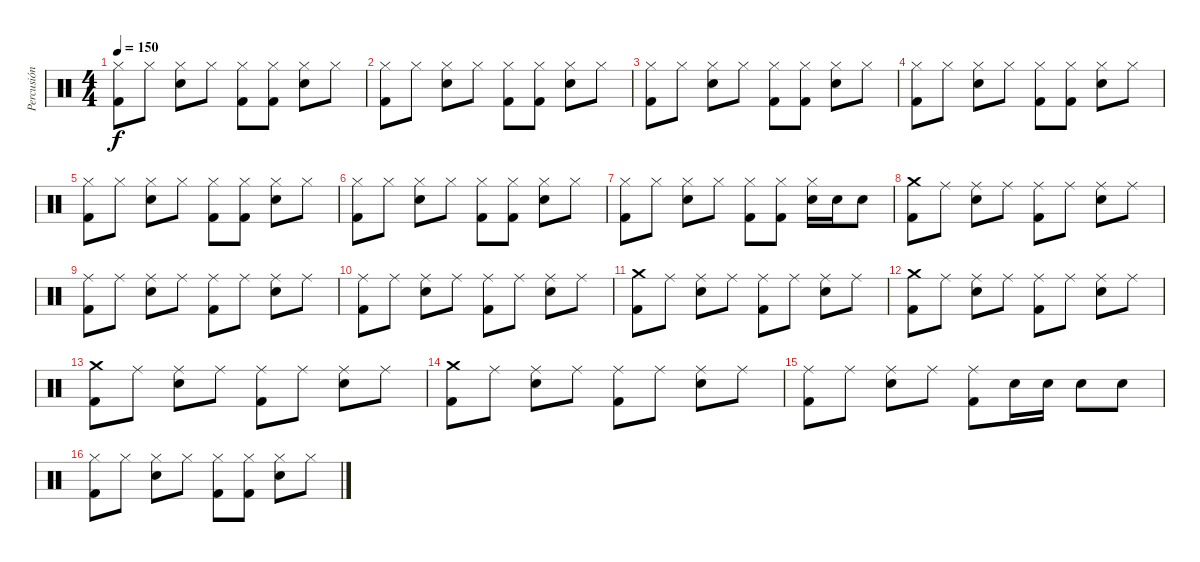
\track ("Percusión" "Percusión") {instrument percussion}
\staff {score}
\articulation defaults
\ts (4 4)
\tempo 150
\clef neutral
\ks c
("Hi-Hat (closed)" "Kick (hit) 2").8{dy f} "Hi-Hat (closed)".8 ("Hi-Hat (closed)" "Snare (hit) 2").8 "Hi-Hat (closed)".8 ("Hi-Hat (closed)" "Kick (hit) 2").8 ("Hi-Hat (closed)" "Kick (hit) 2").8 ("Hi-Hat (closed)" "Snare (hit) 2").8 "Hi-Hat (closed)".8 |
("Hi-Hat (closed)" "Kick (hit) 2").8 "Hi-Hat (closed)".8 ("Hi-Hat (closed)" "Snare (hit) 2").8 "Hi-Hat (closed)".8 ("Hi-Hat (closed)" "Kick (hit) 2").8 ("Hi-Hat (closed)" "Kick (hit) 2").8 ("Hi-Hat (closed)" "Snare (hit) 2").8 "Hi-Hat (closed)".8 |
("Hi-Hat (closed)" "Kick (hit) 2").8 "Hi-Hat (closed)".8 ("Hi-Hat (closed)" "Snare (hit) 2").8 "Hi-Hat (closed)".8 ("Hi-Hat (closed)" "Kick (hit) 2").8 ("Hi-Hat (closed)" "Kick (hit) 2").8 ("Hi-Hat (closed)" "Snare (hit) 2").8 "Hi-Hat (closed)".8 |
("Hi-Hat (closed)" "Kick (hit) 2").8 "Hi-Hat (closed)".8 ("Hi-Hat (closed)" "Snare (hit) 2").8 "Hi-Hat (closed)".8 ("Hi-Hat (closed)" "Kick (hit) 2").8 ("Hi-Hat (closed)" "Kick (hit) 2").8 ("Hi-Hat (closed)" "Snare (hit) 2").8 "Hi-Hat (closed)".8 |
("Hi-Hat (closed)" "Kick (hit) 2").8 "Hi-Hat (closed)".8 ("Hi-Hat (closed)" "Snare (hit) 2").8 "Hi-Hat (closed)".8 ("Hi-Hat (closed)" "Kick (hit) 2").8 ("Hi-Hat (closed)" "Kick (hit) 2").8 ("Hi-Hat (closed)" "Snare (hit) 2").8 "Hi-Hat (closed)".8 |
("Hi-Hat (closed)" "Kick (hit) 2").8 "Hi-Hat (closed)".8 ("Hi-Hat (closed)" "Snare (hit) 2").8 "Hi-Hat (closed)".8 ("Hi-Hat (closed)" "Kick (hit) 2").8 ("Hi-Hat (closed)" "Kick (hit) 2").8 ("Hi-Hat (closed)" "Snare (hit) 2").8 "Hi-Hat (closed)".8 |
("Hi-Hat (closed)" "Kick (hit) 2").8 "Hi-Hat (closed)".8 ("Hi-Hat (closed)" "Snare (hit) 2").8 "Hi-Hat (closed)".8 ("Hi-Hat (closed)" "Kick (hit) 2").8 ("Hi-Hat (closed)" "Kick (hit) 2").8 ("Hi-Hat (closed)" "Snare (hit) 2").16 "Snare (hit) 2".16 "Snare (hit) 2".8 |
("Crash medium (hit)" "Kick (hit) 2").8 "Ride (middle)".8 ("Ride (middle)" "Snare (hit) 2").8 "Ride (middle)".8 ("Ride (middle)" "Kick (hit) 2").8 "Ride (middle)".8 ("Ride (middle)" "Snare (hit) 2").8 "Ride (middle)".8 |
("Ride (middle)" "Kick (hit) 2").8 "Ride (middle)".8 ("Ride (middle)" "Snare (hit) 2").8 "Ride (middle)".8 ("Ride (middle)" "Kick (hit) 2").8 "Ride (middle)".8 ("Ride (middle)" "Snare (hit) 2").8 "Ride (middle)".8 |
("Ride (middle)" "Kick (hit) 2").8 "Ride (middle)".8 ("Ride (middle)" "Snare (hit) 2").8 "Ride (middle)".8 ("Ride (middle)" "Kick (hit) 2").8 "Ride (middle)".8 ("Ride (middle)" "Snare (hit) 2").8 "Ride (middle)".8 |
("Crash medium (hit)" "Kick (hit) 2").8 "Ride (middle)".8 ("Ride (middle)" "Snare (hit) 2").8 "Ride (middle)".8 ("Ride (middle)" "Kick (hit) 2").8 "Ride (middle)".8 ("Ride (middle)" "Snare (hit) 2").8 "Ride (middle)".8 |
("Crash medium (hit)" "Kick (hit) 2").8 "Ride (middle)".8 ("Ride (middle)" "Snare (hit) 2").8 "Ride (middle)".8 ("Ride (middle)" "Kick (hit) 2").8 "Ride (middle)".8 ("Ride (middle)" "Snare (hit) 2").8 "Ride (middle)".8 |
("Crash medium (hit)" "Kick (hit) 2").8 "Ride (middle)".8 ("Ride (middle)" "Snare (hit) 2").8 "Ride (middle)".8 ("Ride (middle)" "Kick (hit) 2").8 "Ride (middle)".8 ("Ride (middle)" "Snare (hit) 2").8 "Ride (middle)".8 |
("Crash medium (hit)" "Kick (hit) 2").8 "Ride (middle)".8 ("Ride (middle)" "Snare (hit) 2").8 "Ride (middle)".8 ("Ride (middle)" "Kick (hit) 2").8 "Ride (middle)".8 ("Ride (middle)" "Snare (hit) 2").8 "Ride (middle)".8 |
("Ride (middle)" "Kick (hit) 2").8 "Ride (middle)".8 ("Ride (middle)" "Snare (hit) 2").8 "Ride (middle)".8 ("Ride (middle)" "Kick (hit) 2").8 "Snare (hit) 2".16 "Snare (hit) 2".16 "Snare (hit) 2".8 "Snare (hit) 2".8 |
("Hi-Hat (closed)" "Kick (hit) 2").8 "Hi-Hat (closed)".8 ("Hi-Hat (closed)" "Snare (hit) 2").8 "Hi-Hat (closed)".8 ("Hi-Hat (closed)" "Kick (hit) 2").8 ("Hi-Hat (closed)" "Kick (hit) 2").8 ("Hi-Hat (closed)" "Snare (hit) 2").8 "Hi-Hat (closed)".8
